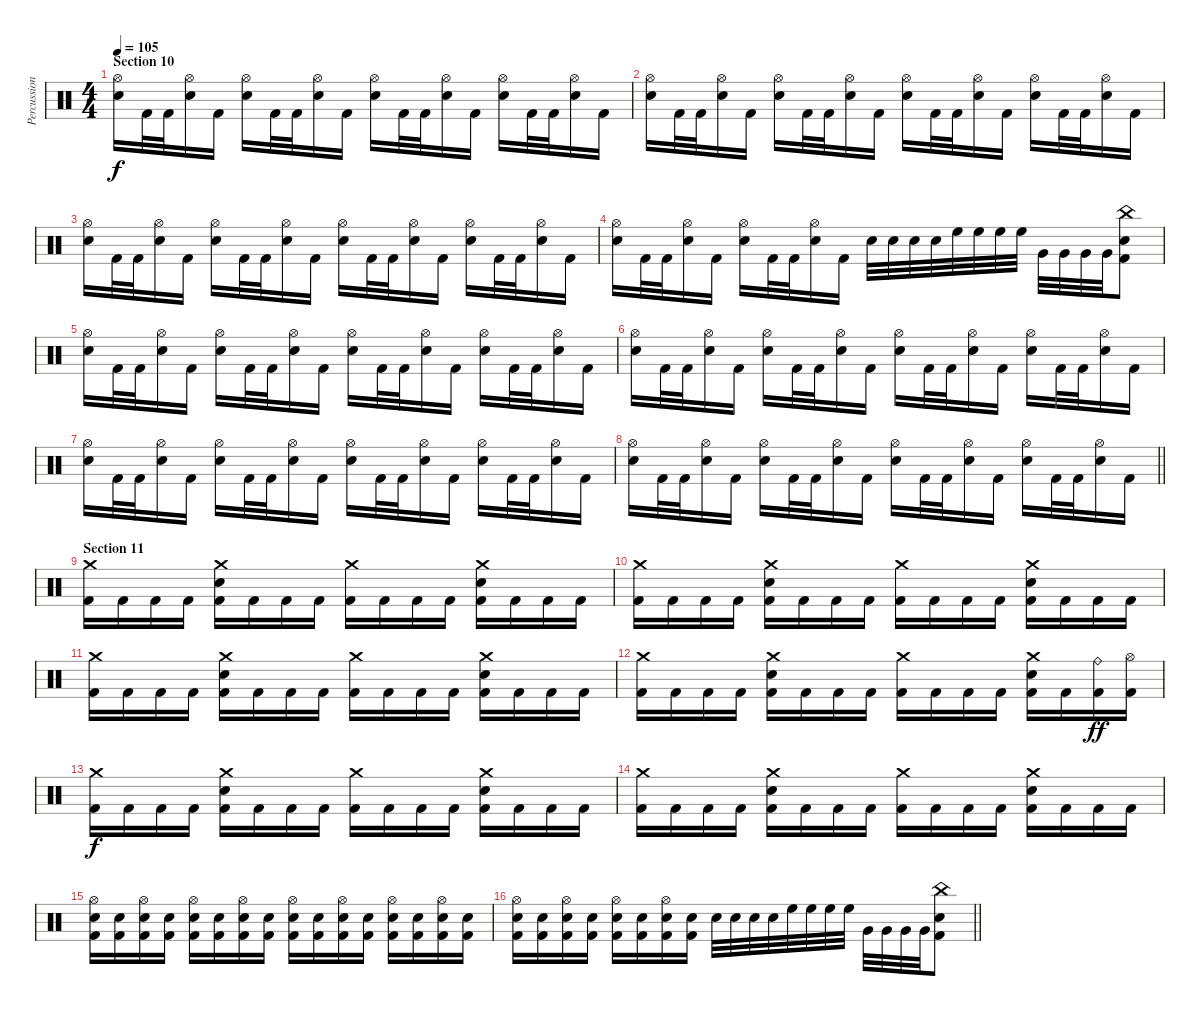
\track ("Percussion" "Percussion") {instrument percussion}
\staff {score}
\articulation defaults
\ts (4 4)
\section ("" "Section 10")
\tempo 105
\clef neutral
\ks c
("Hi-Hat (open)" "Electric Snare (hit)").16{dy f} "Kick (hit) 2".32 "Kick (hit) 2".32 ("Hi-Hat (open)" "Electric Snare (hit)").16 "Kick (hit) 2".16 ("Hi-Hat (open)" "Electric Snare (hit)").16 "Kick (hit) 2".32 "Kick (hit) 2".32 ("Hi-Hat (open)" "Electric Snare (hit)").16 "Kick (hit) 2".16 ("Hi-Hat (open)" "Electric Snare (hit)").16 "Kick (hit) 2".32 "Kick (hit) 2".32 ("Hi-Hat (open)" "Electric Snare (hit)").16 "Kick (hit) 2".16 ("Hi-Hat (open)" "Electric Snare (hit)").16 "Kick (hit) 2".32 "Kick (hit) 2".32 ("Hi-Hat (open)" "Electric Snare (hit)").16 "Kick (hit) 2".16 |
("Hi-Hat (open)" "Electric Snare (hit)").16 "Kick (hit) 2".32 "Kick (hit) 2".32 ("Hi-Hat (open)" "Electric Snare (hit)").16 "Kick (hit) 2".16 ("Hi-Hat (open)" "Electric Snare (hit)").16 "Kick (hit) 2".32 "Kick (hit) 2".32 ("Hi-Hat (open)" "Electric Snare (hit)").16 "Kick (hit) 2".16 ("Hi-Hat (open)" "Electric Snare (hit)").16 "Kick (hit) 2".32 "Kick (hit) 2".32 ("Hi-Hat (open)" "Electric Snare (hit)").16 "Kick (hit) 2".16 ("Hi-Hat (open)" "Electric Snare (hit)").16 "Kick (hit) 2".32 "Kick (hit) 2".32 ("Hi-Hat (open)" "Electric Snare (hit)").16 "Kick (hit) 2".16 |
("Hi-Hat (open)" "Electric Snare (hit)").16 "Kick (hit) 2".32 "Kick (hit) 2".32 ("Hi-Hat (open)" "Electric Snare (hit)").16 "Kick (hit) 2".16 ("Hi-Hat (open)" "Electric Snare (hit)").16 "Kick (hit) 2".32 "Kick (hit) 2".32 ("Hi-Hat (open)" "Electric Snare (hit)").16 "Kick (hit) 2".16 ("Hi-Hat (open)" "Electric Snare (hit)").16 "Kick (hit) 2".32 "Kick (hit) 2".32 ("Hi-Hat (open)" "Electric Snare (hit)").16 "Kick (hit) 2".16 ("Hi-Hat (open)" "Electric Snare (hit)").16 "Kick (hit) 2".32 "Kick (hit) 2".32 ("Hi-Hat (open)" "Electric Snare (hit)").16 "Kick (hit) 2".16 |
("Hi-Hat (open)" "Electric Snare (hit)").16 "Kick (hit) 2".32 "Kick (hit) 2".32 ("Hi-Hat (open)" "Electric Snare (hit)").16 "Kick (hit) 2".16 ("Hi-Hat (open)" "Electric Snare (hit)").16 "Kick (hit) 2".32 "Kick (hit) 2".32 ("Hi-Hat (open)" "Electric Snare (hit)").16 "Kick (hit) 2".16 "Electric Snare (hit)".32 "Electric Snare (hit)".32 "Electric Snare (hit)".32 "Electric Snare (hit)".32 "High Floor Tom (hit)".32 "High Floor Tom (hit)".32 "High Floor Tom (hit)".32 "High Floor Tom (hit)".32 "Very Low Tom (hit)".32 "Very Low Tom (hit)".32 "Very Low Tom (hit)".32 "Very Low Tom (hit)".32 ("China (hit)" "Electric Snare (hit)" "Kick (hit) 2").8 |
("Hi-Hat (open)" "Electric Snare (hit)").16 "Kick (hit) 2".32 "Kick (hit) 2".32 ("Hi-Hat (open)" "Electric Snare (hit)").16 "Kick (hit) 2".16 ("Hi-Hat (open)" "Electric Snare (hit)").16 "Kick (hit) 2".32 "Kick (hit) 2".32 ("Hi-Hat (open)" "Electric Snare (hit)").16 "Kick (hit) 2".16 ("Hi-Hat (open)" "Electric Snare (hit)").16 "Kick (hit) 2".32 "Kick (hit) 2".32 ("Hi-Hat (open)" "Electric Snare (hit)").16 "Kick (hit) 2".16 ("Hi-Hat (open)" "Electric Snare (hit)").16 "Kick (hit) 2".32 "Kick (hit) 2".32 ("Hi-Hat (open)" "Electric Snare (hit)").16 "Kick (hit) 2".16 |
("Hi-Hat (open)" "Electric Snare (hit)").16 "Kick (hit) 2".32 "Kick (hit) 2".32 ("Hi-Hat (open)" "Electric Snare (hit)").16 "Kick (hit) 2".16 ("Hi-Hat (open)" "Electric Snare (hit)").16 "Kick (hit) 2".32 "Kick (hit) 2".32 ("Hi-Hat (open)" "Electric Snare (hit)").16 "Kick (hit) 2".16 ("Hi-Hat (open)" "Electric Snare (hit)").16 "Kick (hit) 2".32 "Kick (hit) 2".32 ("Hi-Hat (open)" "Electric Snare (hit)").16 "Kick (hit) 2".16 ("Hi-Hat (open)" "Electric Snare (hit)").16 "Kick (hit) 2".32 "Kick (hit) 2".32 ("Hi-Hat (open)" "Electric Snare (hit)").16 "Kick (hit) 2".16 |
("Hi-Hat (open)" "Electric Snare (hit)").16 "Kick (hit) 2".32 "Kick (hit) 2".32 ("Hi-Hat (open)" "Electric Snare (hit)").16 "Kick (hit) 2".16 ("Hi-Hat (open)" "Electric Snare (hit)").16 "Kick (hit) 2".32 "Kick (hit) 2".32 ("Hi-Hat (open)" "Electric Snare (hit)").16 "Kick (hit) 2".16 ("Hi-Hat (open)" "Electric Snare (hit)").16 "Kick (hit) 2".32 "Kick (hit) 2".32 ("Hi-Hat (open)" "Electric Snare (hit)").16 "Kick (hit) 2".16 ("Hi-Hat (open)" "Electric Snare (hit)").16 "Kick (hit) 2".32 "Kick (hit) 2".32 ("Hi-Hat (open)" "Electric Snare (hit)").16 "Kick (hit) 2".16 |
\barLineRight lightlight
("Hi-Hat (open)" "Electric Snare (hit)").16 "Kick (hit) 2".32 "Kick (hit) 2".32 ("Hi-Hat (open)" "Electric Snare (hit)").16 "Kick (hit) 2".16 ("Hi-Hat (open)" "Electric Snare (hit)").16 "Kick (hit) 2".32 "Kick (hit) 2".32 ("Hi-Hat (open)" "Electric Snare (hit)").16 "Kick (hit) 2".16 ("Hi-Hat (open)" "Electric Snare (hit)").16 "Kick (hit) 2".32 "Kick (hit) 2".32 ("Hi-Hat (open)" "Electric Snare (hit)").16 "Kick (hit) 2".16 ("Hi-Hat (open)" "Electric Snare (hit)").16 "Kick (hit) 2".32 "Kick (hit) 2".32 ("Hi-Hat (open)" "Electric Snare (hit)").16 "Kick (hit) 2".16 |
\section ("" "Section 11")
("Crash medium (hit)" "Kick (hit) 2").16 "Kick (hit) 2".16 "Kick (hit) 2".16 "Kick (hit) 2".16 ("Crash medium (hit)" "Electric Snare (hit)" "Kick (hit) 2").16 "Kick (hit) 2".16 "Kick (hit) 2".16 "Kick (hit) 2".16 ("Crash medium (hit)" "Kick (hit) 2").16 "Kick (hit) 2".16 "Kick (hit) 2".16 "Kick (hit) 2".16 ("Crash medium (hit)" "Electric Snare (hit)" "Kick (hit) 2").16 "Kick (hit) 2".16 "Kick (hit) 2".16 "Kick (hit) 2".16 |
("Crash medium (hit)" "Kick (hit) 2").16 "Kick (hit) 2".16 "Kick (hit) 2".16 "Kick (hit) 2".16 ("Crash medium (hit)" "Electric Snare (hit)" "Kick (hit) 2").16 "Kick (hit) 2".16 "Kick (hit) 2".16 "Kick (hit) 2".16 ("Crash medium (hit)" "Kick (hit) 2").16 "Kick (hit) 2".16 "Kick (hit) 2".16 "Kick (hit) 2".16 ("Crash medium (hit)" "Electric Snare (hit)" "Kick (hit) 2").16 "Kick (hit) 2".16 "Kick (hit) 2".16 "Kick (hit) 2".16 |
("Crash medium (hit)" "Kick (hit) 2").16 "Kick (hit) 2".16 "Kick (hit) 2".16 "Kick (hit) 2".16 ("Crash medium (hit)" "Electric Snare (hit)" "Kick (hit) 2").16 "Kick (hit) 2".16 "Kick (hit) 2".16 "Kick (hit) 2".16 ("Crash medium (hit)" "Kick (hit) 2").16 "Kick (hit) 2".16 "Kick (hit) 2".16 "Kick (hit) 2".16 ("Crash medium (hit)" "Electric Snare (hit)" "Kick (hit) 2").16 "Kick (hit) 2".16 "Kick (hit) 2".16 "Kick (hit) 2".16 |
("Crash medium (hit)" "Kick (hit) 2").16 "Kick (hit) 2".16 "Kick (hit) 2".16 "Kick (hit) 2".16 ("Crash medium (hit)" "Electric Snare (hit)" "Kick (hit) 2").16 "Kick (hit) 2".16 "Kick (hit) 2".16 "Kick (hit) 2".16 ("Crash medium (hit)" "Kick (hit) 2").16 "Kick (hit) 2".16 "Kick (hit) 2".16 "Kick (hit) 2".16 ("Crash medium (hit)" "Electric Snare (hit)" "Kick (hit) 2").16 "Kick (hit) 2".16 ("Ride (bell)" "Kick (hit) 2").16{dy ff} ("Hi-Hat (open)" "Kick (hit) 2").16 |
("Crash medium (hit)" "Kick (hit) 2").16{dy f} "Kick (hit) 2".16 "Kick (hit) 2".16 "Kick (hit) 2".16 ("Crash medium (hit)" "Electric Snare (hit)" "Kick (hit) 2").16 "Kick (hit) 2".16 "Kick (hit) 2".16 "Kick (hit) 2".16 ("Crash medium (hit)" "Kick (hit) 2").16 "Kick (hit) 2".16 "Kick (hit) 2".16 "Kick (hit) 2".16 ("Crash medium (hit)" "Electric Snare (hit)" "Kick (hit) 2").16 "Kick (hit) 2".16 "Kick (hit) 2".16 "Kick (hit) 2".16 |
("Crash medium (hit)" "Kick (hit) 2").16 "Kick (hit) 2".16 "Kick (hit) 2".16 "Kick (hit) 2".16 ("Crash medium (hit)" "Electric Snare (hit)" "Kick (hit) 2").16 "Kick (hit) 2".16 "Kick (hit) 2".16 "Kick (hit) 2".16 ("Crash medium (hit)" "Kick (hit) 2").16 "Kick (hit) 2".16 "Kick (hit) 2".16 "Kick (hit) 2".16 ("Crash medium (hit)" "Electric Snare (hit)" "Kick (hit) 2").16 "Kick (hit) 2".16 "Kick (hit) 2".16 "Kick (hit) 2".16 |
("Hi-Hat (open)" "Electric Snare (hit)" "Kick (hit) 2").16 ("Electric Snare (hit)" "Kick (hit) 2").16 ("Hi-Hat (open)" "Electric Snare (hit)" "Kick (hit) 2").16 ("Electric Snare (hit)" "Kick (hit) 2").16 ("Hi-Hat (open)" "Electric Snare (hit)" "Kick (hit) 2").16 ("Electric Snare (hit)" "Kick (hit) 2").16 ("Hi-Hat (open)" "Electric Snare (hit)" "Kick (hit) 2").16 ("Electric Snare (hit)" "Kick (hit) 2").16 ("Hi-Hat (open)" "Electric Snare (hit)" "Kick (hit) 2").16 ("Electric Snare (hit)" "Kick (hit) 2").16 ("Hi-Hat (open)" "Electric Snare (hit)" "Kick (hit) 2").16 ("Electric Snare (hit)" "Kick (hit) 2").16 ("Hi-Hat (open)" "Electric Snare (hit)" "Kick (hit) 2").16 ("Electric Snare (hit)" "Kick (hit) 2").16 ("Hi-Hat (open)" "Electric Snare (hit)" "Kick (hit) 2").16 ("Electric Snare (hit)" "Kick (hit) 2").16 |
\barLineRight lightlight
("Hi-Hat (open)" "Electric Snare (hit)" "Kick (hit) 2").16 ("Electric Snare (hit)" "Kick (hit) 2").16 ("Hi-Hat (open)" "Electric Snare (hit)" "Kick (hit) 2").16 ("Electric Snare (hit)" "Kick (hit) 2").16 ("Hi-Hat (open)" "Electric Snare (hit)" "Kick (hit) 2").16 ("Electric Snare (hit)" "Kick (hit) 2").16 ("Hi-Hat (open)" "Electric Snare (hit)" "Kick (hit) 2").16 ("Electric Snare (hit)" "Kick (hit) 2").16 "Electric Snare (hit)".32 "Electric Snare (hit)".32 "Electric Snare (hit)".32 "Electric Snare (hit)".32 "High Floor Tom (hit)".32 "High Floor Tom (hit)".32 "High Floor Tom (hit)".32 "High Floor Tom (hit)".32 "Very Low Tom (hit)".32 "Very Low Tom (hit)".32 "Very Low Tom (hit)".32 "Very Low Tom (hit)".32 ("China (hit)" "Electric Snare (hit)" "Kick (hit) 2").8
